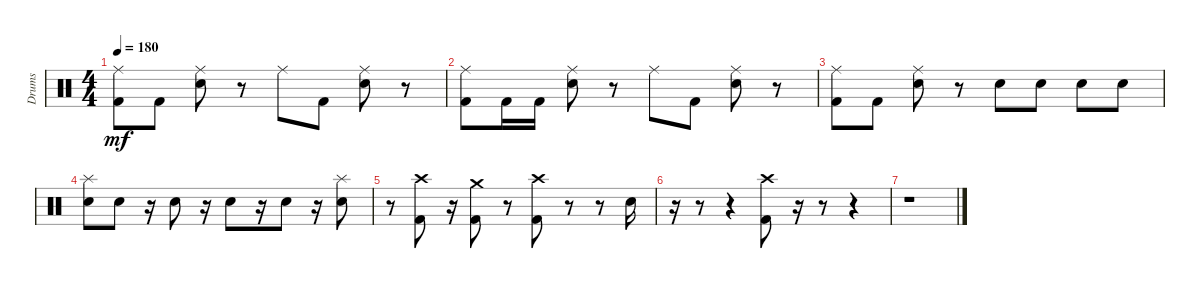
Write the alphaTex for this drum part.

\track ("Drums" "Drums") {instrument percussion}
\staff {score}
\articulation defaults
\ts (4 4)
\tempo 180
\clef neutral
\ks c
("Ride (middle)" "Kick (hit) 2").8{dy mf} "Kick (hit) 2".8 ("Ride (middle)" "Snare (hit) 2").8 r.8 "Ride (middle)".8 "Kick (hit) 2".8 ("Ride (middle)" "Snare (hit) 2").8 r.8 |
("Ride (middle)" "Kick (hit) 2").8 "Kick (hit) 2".16 "Kick (hit) 2".16 ("Ride (middle)" "Snare (hit) 2").8 r.8 "Ride (middle)".8 "Kick (hit) 2".8 ("Ride (middle)" "Snare (hit) 2").8 r.8 |
("Ride (middle)" "Kick (hit) 2").8 "Kick (hit) 2".8 ("Ride (middle)" "Snare (hit) 2").8 r.8 "Snare (hit) 2".8 "Snare (hit) 2".8 "Snare (hit) 2".8 "Snare (hit) 2".8 |
("Splash (hit)" "Snare (hit) 2").8 "Snare (hit) 2".8 r.16 "Snare (hit) 2".8 r.16 "Snare (hit) 2".8 r.16 "Snare (hit) 2".8 r.16 ("Splash (hit)" "Snare (hit) 2").8 |
r.8 ("Crash high (hit)" "Kick (hit) 2").8 r.16 ("Crash medium (hit)" "Kick (hit) 2").8 r.8 ("Crash high (hit)" "Kick (hit) 2").8 r.8 r.8 "Snare (hit) 2".16 |
r.16 r.8 r.4 ("Crash high (hit)" "Kick (hit) 2").8 r.16 r.8 r.4 |
r.1
